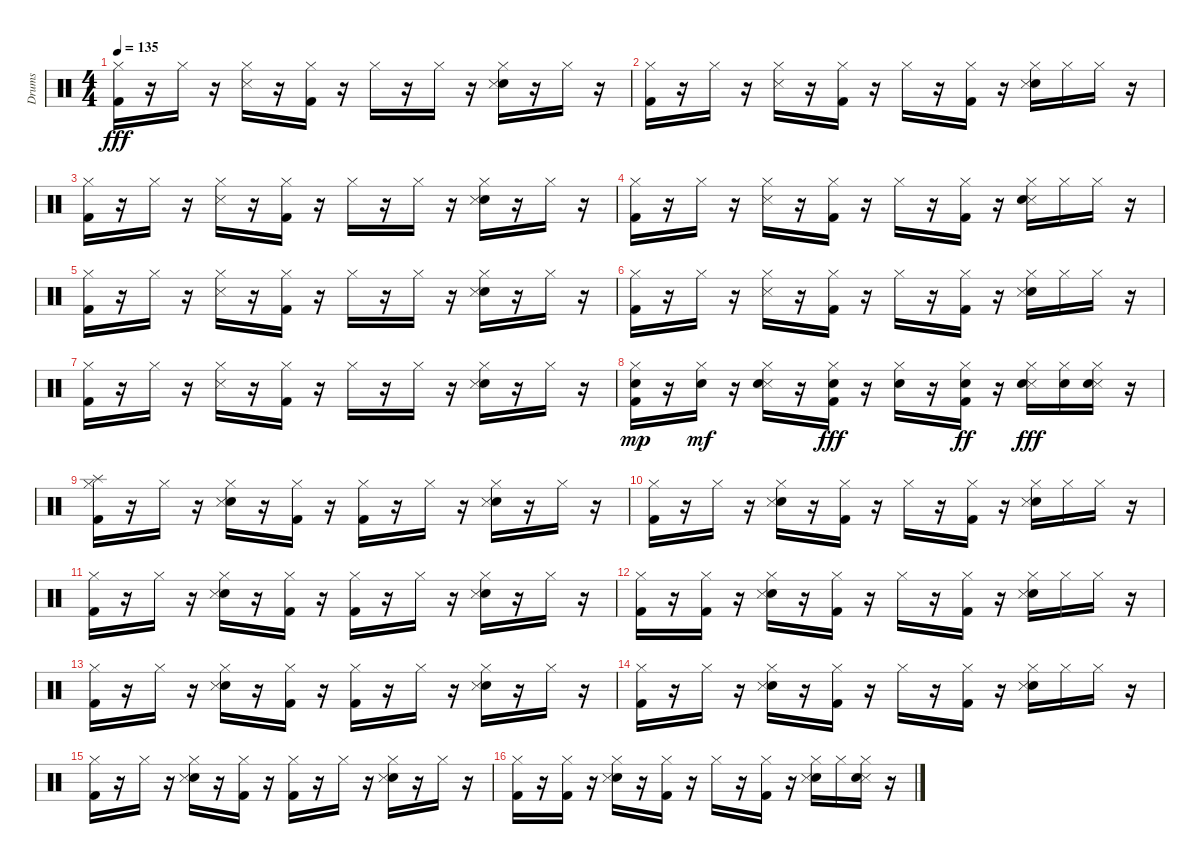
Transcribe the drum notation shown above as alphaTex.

\track ("Drums" "Drums") {instrument percussion}
\staff {score}
\articulation defaults
\ts (4 4)
\tempo 135
\clef neutral
\ks c
("Kick (hit) 2" "Hi-Hat (closed)").16{dy fff} r.16 "Hi-Hat (closed)".16 r.16 ("Snare (side stick) 3" "Hi-Hat (closed)").16 r.16 ("Kick (hit) 2" "Hi-Hat (closed)").16 r.16 "Hi-Hat (closed)".16 r.16 "Hi-Hat (closed)".16 r.16 ("Electric Snare (hit)" "Snare (side stick) 3" "Hi-Hat (closed)").16 r.16 "Hi-Hat (closed)".16 r.16 |
("Kick (hit) 2" "Hi-Hat (closed)").16 r.16 "Hi-Hat (closed)".16 r.16 ("Snare (side stick) 3" "Hi-Hat (closed)").16 r.16 ("Kick (hit) 2" "Hi-Hat (closed)").16 r.16 "Hi-Hat (closed)".16 r.16 ("Kick (hit) 2" "Hi-Hat (closed)").16 r.16 ("Electric Snare (hit)" "Snare (side stick) 3" "Hi-Hat (closed)").16 "Hi-Hat (closed)".16 "Hi-Hat (closed)".16 r.16 |
("Kick (hit) 2" "Hi-Hat (closed)").16 r.16 "Hi-Hat (closed)".16 r.16 ("Snare (side stick) 3" "Hi-Hat (closed)").16 r.16 ("Kick (hit) 2" "Hi-Hat (closed)").16 r.16 "Hi-Hat (closed)".16 r.16 "Hi-Hat (closed)".16 r.16 ("Electric Snare (hit)" "Snare (side stick) 3" "Hi-Hat (closed)").16 r.16 "Hi-Hat (closed)".16 r.16 |
("Kick (hit) 2" "Hi-Hat (closed)").16 r.16 "Hi-Hat (closed)".16 r.16 ("Snare (side stick) 3" "Hi-Hat (closed)").16 r.16 ("Kick (hit) 2" "Hi-Hat (closed)").16 r.16 "Hi-Hat (closed)".16 r.16 ("Kick (hit) 2" "Hi-Hat (closed)").16 r.16 ("Snare (side stick) 3" "Electric Snare (hit)" "Hi-Hat (closed)").16 "Hi-Hat (closed)".16 "Hi-Hat (closed)".16 r.16 |
("Kick (hit) 2" "Hi-Hat (closed)").16 r.16 "Hi-Hat (closed)".16 r.16 ("Snare (side stick) 3" "Hi-Hat (closed)").16 r.16 ("Kick (hit) 2" "Hi-Hat (closed)").16 r.16 "Hi-Hat (closed)".16 r.16 "Hi-Hat (closed)".16 r.16 ("Electric Snare (hit)" "Snare (side stick) 3" "Hi-Hat (closed)").16 r.16 "Hi-Hat (closed)".16 r.16 |
("Kick (hit) 2" "Hi-Hat (closed)").16 r.16 "Hi-Hat (closed)".16 r.16 ("Snare (side stick) 3" "Hi-Hat (closed)").16 r.16 ("Kick (hit) 2" "Hi-Hat (closed)").16 r.16 "Hi-Hat (closed)".16 r.16 ("Kick (hit) 2" "Hi-Hat (closed)").16 r.16 ("Electric Snare (hit)" "Snare (side stick) 3" "Hi-Hat (closed)").16 "Hi-Hat (closed)".16 "Hi-Hat (closed)".16 r.16 |
("Kick (hit) 2" "Hi-Hat (closed)").16 r.16 "Hi-Hat (closed)".16 r.16 ("Snare (side stick) 3" "Hi-Hat (closed)").16 r.16 ("Kick (hit) 2" "Hi-Hat (closed)").16 r.16 "Hi-Hat (closed)".16 r.16 "Hi-Hat (closed)".16 r.16 ("Electric Snare (hit)" "Snare (side stick) 3" "Hi-Hat (closed)").16 r.16 "Hi-Hat (closed)".16 r.16 |
("Hi-Hat (closed)" "Kick (hit) 2" "Electric Snare (hit)").16{dy mp} r.16 ("Hi-Hat (closed)" "Electric Snare (hit)").16{dy mf} r.16 ("Hi-Hat (closed)" "Snare (side stick) 3" "Electric Snare (hit)").16 r.16 ("Hi-Hat (closed)" "Kick (hit) 2" "Electric Snare (hit)").16{dy fff} r.16 ("Hi-Hat (closed)" "Electric Snare (hit)").16 r.16 ("Hi-Hat (closed)" "Kick (hit) 2" "Electric Snare (hit)").16{dy ff} r.16 ("Hi-Hat (closed)" "Snare (side stick) 3" "Electric Snare (hit)").16{dy fff} ("Hi-Hat (closed)" "Electric Snare (hit)").16 ("Hi-Hat (closed)" "Snare (side stick) 3" "Electric Snare (hit)").16 r.16 |
("Splash (hit)" "Kick (hit) 2" "Hi-Hat (closed)").16 r.16 "Hi-Hat (closed)".16 r.16 ("Electric Snare (hit)" "Snare (side stick) 3" "Hi-Hat (closed)").16 r.16 ("Kick (hit) 2" "Hi-Hat (closed)").16 r.16 ("Kick (hit) 2" "Hi-Hat (closed)").16 r.16 "Hi-Hat (closed)".16 r.16 ("Electric Snare (hit)" "Snare (side stick) 3" "Hi-Hat (closed)").16 r.16 "Hi-Hat (closed)".16 r.16 |
("Kick (hit) 2" "Hi-Hat (closed)").16 r.16 "Hi-Hat (closed)".16 r.16 ("Electric Snare (hit)" "Snare (side stick) 3" "Hi-Hat (closed)").16 r.16 ("Kick (hit) 2" "Hi-Hat (closed)").16 r.16 "Hi-Hat (closed)".16 r.16 ("Kick (hit) 2" "Hi-Hat (closed)").16 r.16 ("Electric Snare (hit)" "Snare (side stick) 3" "Hi-Hat (closed)").16 "Hi-Hat (closed)".16 "Hi-Hat (closed)".16 r.16 |
("Kick (hit) 2" "Hi-Hat (closed)").16 r.16 "Hi-Hat (closed)".16 r.16 ("Electric Snare (hit)" "Snare (side stick) 3" "Hi-Hat (closed)").16 r.16 ("Kick (hit) 2" "Hi-Hat (closed)").16 r.16 ("Kick (hit) 2" "Hi-Hat (closed)").16 r.16 "Hi-Hat (closed)".16 r.16 ("Electric Snare (hit)" "Snare (side stick) 3" "Hi-Hat (closed)").16 r.16 "Hi-Hat (closed)".16 r.16 |
("Hi-Hat (closed)" "Kick (hit) 2").16 r.16 ("Kick (hit) 2" "Hi-Hat (closed)").16 r.16 ("Electric Snare (hit)" "Hi-Hat (closed)" "Snare (side stick) 3").16 r.16 ("Hi-Hat (closed)" "Kick (hit) 2").16 r.16 "Hi-Hat (closed)".16 r.16 ("Hi-Hat (closed)" "Kick (hit) 2").16 r.16 ("Electric Snare (hit)" "Hi-Hat (closed)" "Snare (side stick) 3").16 "Hi-Hat (closed)".16 "Hi-Hat (closed)".16 r.16 |
("Kick (hit) 2" "Hi-Hat (closed)").16 r.16 "Hi-Hat (closed)".16 r.16 ("Electric Snare (hit)" "Snare (side stick) 3" "Hi-Hat (closed)").16 r.16 ("Kick (hit) 2" "Hi-Hat (closed)").16 r.16 ("Kick (hit) 2" "Hi-Hat (closed)").16 r.16 "Hi-Hat (closed)".16 r.16 ("Electric Snare (hit)" "Snare (side stick) 3" "Hi-Hat (closed)").16 r.16 "Hi-Hat (closed)".16 r.16 |
("Kick (hit) 2" "Hi-Hat (closed)").16 r.16 "Hi-Hat (closed)".16 r.16 ("Electric Snare (hit)" "Snare (side stick) 3" "Hi-Hat (closed)").16 r.16 ("Kick (hit) 2" "Hi-Hat (closed)").16 r.16 "Hi-Hat (closed)".16 r.16 ("Kick (hit) 2" "Hi-Hat (closed)").16 r.16 ("Electric Snare (hit)" "Snare (side stick) 3" "Hi-Hat (closed)").16 "Hi-Hat (closed)".16 "Hi-Hat (closed)".16 r.16 |
("Kick (hit) 2" "Hi-Hat (closed)").16 r.16 "Hi-Hat (closed)".16 r.16 ("Electric Snare (hit)" "Snare (side stick) 3" "Hi-Hat (closed)").16 r.16 ("Kick (hit) 2" "Hi-Hat (closed)").16 r.16 ("Kick (hit) 2" "Hi-Hat (closed)").16 r.16 "Hi-Hat (closed)".16 r.16 ("Electric Snare (hit)" "Snare (side stick) 3" "Hi-Hat (closed)").16 r.16 "Hi-Hat (closed)".16 r.16 |
("Hi-Hat (closed)" "Kick (hit) 2").16 r.16 ("Kick (hit) 2" "Hi-Hat (closed)").16 r.16 ("Electric Snare (hit)" "Hi-Hat (closed)" "Snare (side stick) 3").16 r.16 ("Hi-Hat (closed)" "Kick (hit) 2").16 r.16 "Hi-Hat (closed)".16 r.16 ("Hi-Hat (closed)" "Kick (hit) 2").16 r.16 ("Electric Snare (hit)" "Hi-Hat (closed)" "Snare (side stick) 3").16 "Hi-Hat (closed)".16 ("Snare (side stick) 3" "Electric Snare (hit)" "Hi-Hat (closed)").16 r.16
